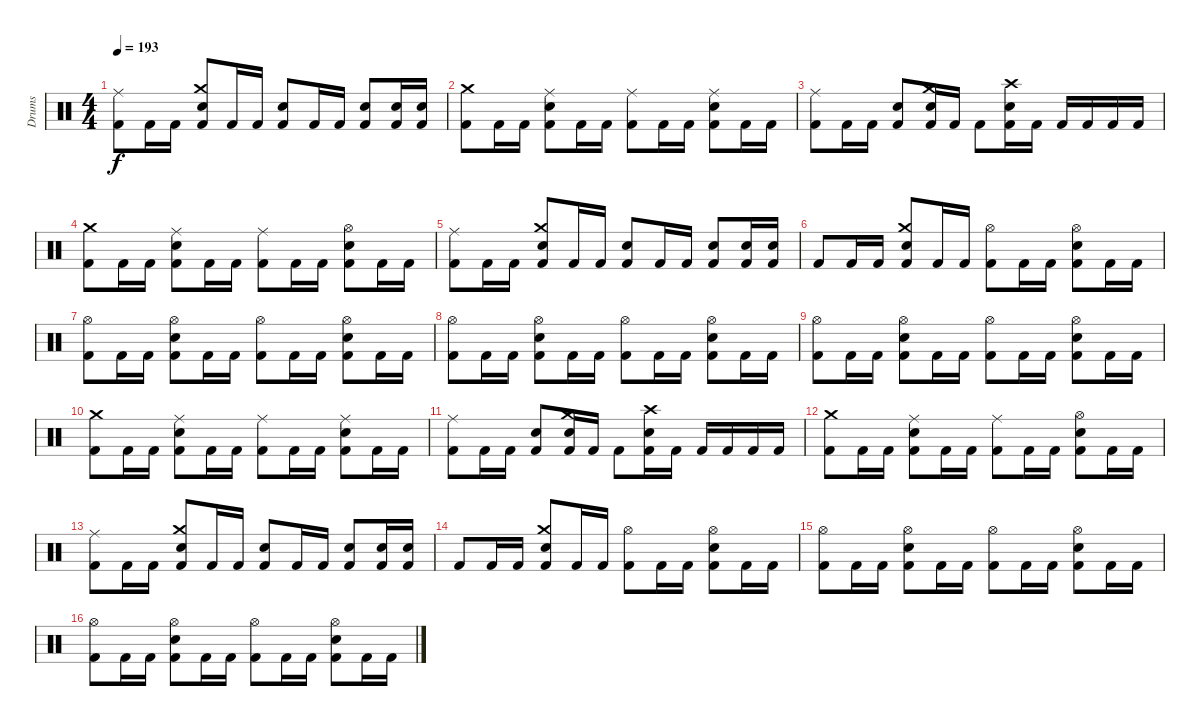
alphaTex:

\track ("Drums" "Drums") {instrument percussion}
\staff {score}
\articulation defaults
\ts (4 4)
\tempo 193
\clef neutral
\ks c
("Ride (middle)" "Kick (hit) 2").8{dy f} "Kick (hit) 2".16 "Kick (hit) 2".16 ("Crash medium (hit)" "Snare (hit) 2" "Kick (hit) 2").8 "Kick (hit) 2".16 "Kick (hit) 2".16 ("Snare (hit) 2" "Kick (hit) 2").8 "Kick (hit) 2".16 "Kick (hit) 2".16 ("Snare (hit) 2" "Kick (hit) 2").8 ("Snare (hit) 2" "Kick (hit) 2").16 ("Snare (hit) 2" "Kick (hit) 2").16 |
("Crash medium (hit)" "Kick (hit) 2").8 "Kick (hit) 2".16 "Kick (hit) 2".16 ("Ride (middle)" "Snare (hit) 2" "Kick (hit) 2").8 "Kick (hit) 2".16 "Kick (hit) 2".16 ("Ride (middle)" "Kick (hit) 2").8 "Kick (hit) 2".16 "Kick (hit) 2".16 ("Ride (middle)" "Snare (hit) 2" "Kick (hit) 2").8 "Kick (hit) 2".16 "Kick (hit) 2".16 |
("Ride (middle)" "Kick (hit) 2").8 "Kick (hit) 2".16 "Kick (hit) 2".16 ("Snare (hit) 2" "Kick (hit) 2").8 ("Crash medium (hit)" "Snare (hit) 2" "Kick (hit) 2").16 "Kick (hit) 2".16 "Kick (hit) 2".8 ("Crash high (hit)" "Snare (hit) 2" "Kick (hit) 2").16 "Kick (hit) 2".16 "Kick (hit) 2".16 "Kick (hit) 2".16 "Kick (hit) 2".16 "Kick (hit) 2".16 |
("Crash medium (hit)" "Kick (hit) 2").8 "Kick (hit) 2".16 "Kick (hit) 2".16 ("Ride (middle)" "Snare (hit) 2" "Kick (hit) 2").8 "Kick (hit) 2".16 "Kick (hit) 2".16 ("Ride (middle)" "Kick (hit) 2").8 "Kick (hit) 2".16 "Kick (hit) 2".16 ("Hi-Hat (open)" "Snare (hit) 2" "Kick (hit) 2").8 "Kick (hit) 2".16 "Kick (hit) 2".16 |
("Ride (middle)" "Kick (hit) 2").8 "Kick (hit) 2".16 "Kick (hit) 2".16 ("Crash medium (hit)" "Snare (hit) 2" "Kick (hit) 2").8 "Kick (hit) 2".16 "Kick (hit) 2".16 ("Snare (hit) 2" "Kick (hit) 2").8 "Kick (hit) 2".16 "Kick (hit) 2".16 ("Snare (hit) 2" "Kick (hit) 2").8 ("Snare (hit) 2" "Kick (hit) 2").16 ("Snare (hit) 2" "Kick (hit) 2").16 |
"Kick (hit) 2".8 "Kick (hit) 2".16 "Kick (hit) 2".16 ("Crash medium (hit)" "Snare (hit) 2" "Kick (hit) 2").8 "Kick (hit) 2".16 "Kick (hit) 2".16 ("Hi-Hat (open)" "Kick (hit) 2").8 "Kick (hit) 2".16 "Kick (hit) 2".16 ("Hi-Hat (open)" "Snare (hit) 2" "Kick (hit) 2").8 "Kick (hit) 2".16 "Kick (hit) 2".16 |
("Hi-Hat (open)" "Kick (hit) 2").8 "Kick (hit) 2".16 "Kick (hit) 2".16 ("Hi-Hat (open)" "Snare (hit) 2" "Kick (hit) 2").8 "Kick (hit) 2".16 "Kick (hit) 2".16 ("Hi-Hat (open)" "Kick (hit) 2").8 "Kick (hit) 2".16 "Kick (hit) 2".16 ("Hi-Hat (open)" "Snare (hit) 2" "Kick (hit) 2").8 "Kick (hit) 2".16 "Kick (hit) 2".16 |
("Hi-Hat (open)" "Kick (hit) 2").8 "Kick (hit) 2".16 "Kick (hit) 2".16 ("Hi-Hat (open)" "Snare (hit) 2" "Kick (hit) 2").8 "Kick (hit) 2".16 "Kick (hit) 2".16 ("Hi-Hat (open)" "Kick (hit) 2").8 "Kick (hit) 2".16 "Kick (hit) 2".16 ("Hi-Hat (open)" "Snare (hit) 2" "Kick (hit) 2").8 "Kick (hit) 2".16 "Kick (hit) 2".16 |
("Hi-Hat (open)" "Kick (hit) 2").8 "Kick (hit) 2".16 "Kick (hit) 2".16 ("Hi-Hat (open)" "Snare (hit) 2" "Kick (hit) 2").8 "Kick (hit) 2".16 "Kick (hit) 2".16 ("Hi-Hat (open)" "Kick (hit) 2").8 "Kick (hit) 2".16 "Kick (hit) 2".16 ("Hi-Hat (open)" "Snare (hit) 2" "Kick (hit) 2").8 "Kick (hit) 2".16 "Kick (hit) 2".16 |
("Crash medium (hit)" "Kick (hit) 2").8 "Kick (hit) 2".16 "Kick (hit) 2".16 ("Ride (middle)" "Snare (hit) 2" "Kick (hit) 2").8 "Kick (hit) 2".16 "Kick (hit) 2".16 ("Ride (middle)" "Kick (hit) 2").8 "Kick (hit) 2".16 "Kick (hit) 2".16 ("Ride (middle)" "Snare (hit) 2" "Kick (hit) 2").8 "Kick (hit) 2".16 "Kick (hit) 2".16 |
("Ride (middle)" "Kick (hit) 2").8 "Kick (hit) 2".16 "Kick (hit) 2".16 ("Snare (hit) 2" "Kick (hit) 2").8 ("Crash medium (hit)" "Snare (hit) 2" "Kick (hit) 2").16 "Kick (hit) 2".16 "Kick (hit) 2".8 ("Crash high (hit)" "Snare (hit) 2" "Kick (hit) 2").16 "Kick (hit) 2".16 "Kick (hit) 2".16 "Kick (hit) 2".16 "Kick (hit) 2".16 "Kick (hit) 2".16 |
("Crash medium (hit)" "Kick (hit) 2").8 "Kick (hit) 2".16 "Kick (hit) 2".16 ("Ride (middle)" "Snare (hit) 2" "Kick (hit) 2").8 "Kick (hit) 2".16 "Kick (hit) 2".16 ("Ride (middle)" "Kick (hit) 2").8 "Kick (hit) 2".16 "Kick (hit) 2".16 ("Hi-Hat (open)" "Snare (hit) 2" "Kick (hit) 2").8 "Kick (hit) 2".16 "Kick (hit) 2".16 |
("Ride (middle)" "Kick (hit) 2").8 "Kick (hit) 2".16 "Kick (hit) 2".16 ("Crash medium (hit)" "Snare (hit) 2" "Kick (hit) 2").8 "Kick (hit) 2".16 "Kick (hit) 2".16 ("Snare (hit) 2" "Kick (hit) 2").8 "Kick (hit) 2".16 "Kick (hit) 2".16 ("Snare (hit) 2" "Kick (hit) 2").8 ("Snare (hit) 2" "Kick (hit) 2").16 ("Snare (hit) 2" "Kick (hit) 2").16 |
"Kick (hit) 2".8 "Kick (hit) 2".16 "Kick (hit) 2".16 ("Crash medium (hit)" "Snare (hit) 2" "Kick (hit) 2").8 "Kick (hit) 2".16 "Kick (hit) 2".16 ("Hi-Hat (open)" "Kick (hit) 2").8 "Kick (hit) 2".16 "Kick (hit) 2".16 ("Hi-Hat (open)" "Snare (hit) 2" "Kick (hit) 2").8 "Kick (hit) 2".16 "Kick (hit) 2".16 |
("Hi-Hat (open)" "Kick (hit) 2").8 "Kick (hit) 2".16 "Kick (hit) 2".16 ("Hi-Hat (open)" "Snare (hit) 2" "Kick (hit) 2").8 "Kick (hit) 2".16 "Kick (hit) 2".16 ("Hi-Hat (open)" "Kick (hit) 2").8 "Kick (hit) 2".16 "Kick (hit) 2".16 ("Hi-Hat (open)" "Snare (hit) 2" "Kick (hit) 2").8 "Kick (hit) 2".16 "Kick (hit) 2".16 |
("Hi-Hat (open)" "Kick (hit) 2").8 "Kick (hit) 2".16 "Kick (hit) 2".16 ("Hi-Hat (open)" "Snare (hit) 2" "Kick (hit) 2").8 "Kick (hit) 2".16 "Kick (hit) 2".16 ("Hi-Hat (open)" "Kick (hit) 2").8 "Kick (hit) 2".16 "Kick (hit) 2".16 ("Hi-Hat (open)" "Snare (hit) 2" "Kick (hit) 2").8 "Kick (hit) 2".16 "Kick (hit) 2".16
